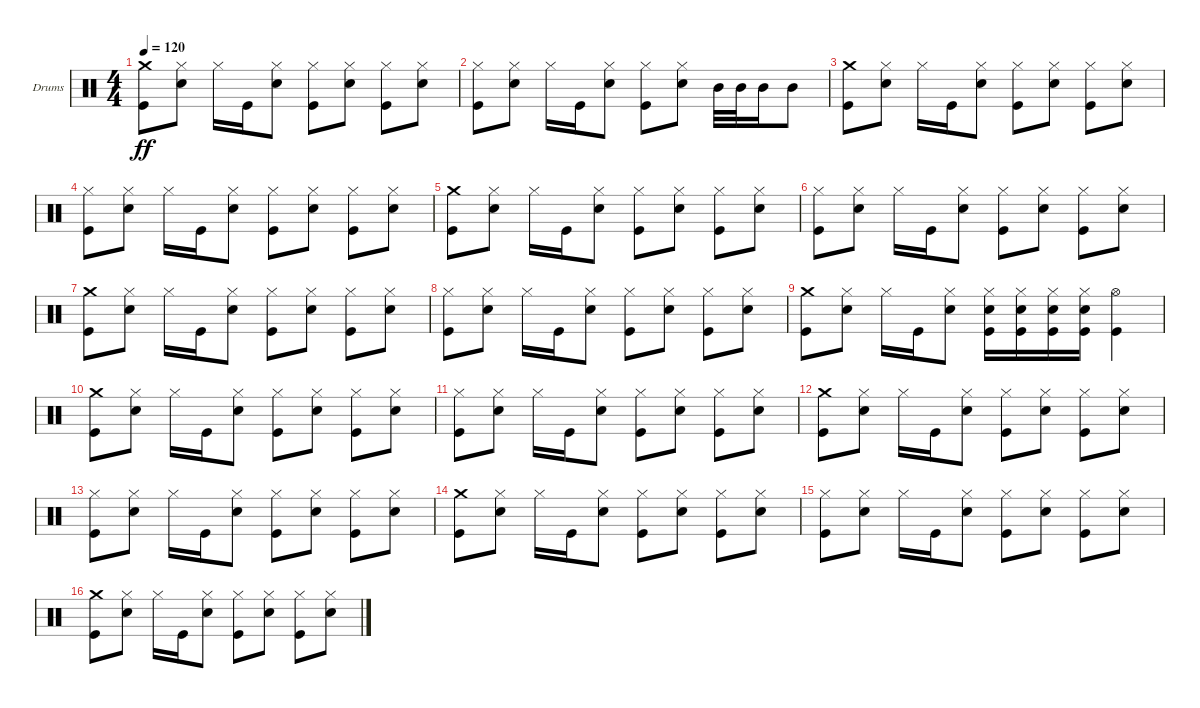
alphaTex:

\bracketExtendMode groupsimilarinstruments
\firstSystemTrackNameOrientation horizontal
\otherSystemsTrackNameOrientation horizontal
\track ("Drumkit" "Drums") {instrument percussion}
\staff {score}
\articulation defaults
\ts (4 4)
\tempo 120
\clef neutral
\ks c
("Kick (hit)" "Crash medium (hit)").8{dy ff} ("Snare (hit) 2" "Hi-Hat (closed)").8 "Hi-Hat (closed)".16 "Kick (hit)".16 ("Snare (hit) 2" "Hi-Hat (closed)").8 ("Kick (hit)" "Hi-Hat (closed)").8 ("Snare (hit) 2" "Hi-Hat (closed)").8 ("Kick (hit)" "Hi-Hat (closed)").8 ("Snare (hit) 2" "Hi-Hat (closed)").8 |
("Kick (hit)" "Hi-Hat (closed)").8 ("Snare (hit) 2" "Hi-Hat (closed)").8 "Hi-Hat (closed)".16 "Kick (hit)".16 ("Snare (hit) 2" "Hi-Hat (closed)").8 ("Kick (hit)" "Hi-Hat (closed)").8 ("Snare (hit) 2" "Hi-Hat (closed)").8 "Mid Tom (hit)".32 "Mid Tom (hit)".32 "Mid Tom (hit)".16 "Mid Tom (hit)".8 |
("Kick (hit)" "Crash medium (hit)").8 ("Snare (hit) 2" "Hi-Hat (closed)").8 "Hi-Hat (closed)".16 "Kick (hit)".16 ("Snare (hit) 2" "Hi-Hat (closed)").8 ("Kick (hit)" "Hi-Hat (closed)").8 ("Snare (hit) 2" "Hi-Hat (closed)").8 ("Kick (hit)" "Hi-Hat (closed)").8 ("Snare (hit) 2" "Hi-Hat (closed)").8 |
("Kick (hit)" "Hi-Hat (closed)").8 ("Snare (hit) 2" "Hi-Hat (closed)").8 "Hi-Hat (closed)".16 "Kick (hit)".16 ("Snare (hit) 2" "Hi-Hat (closed)").8 ("Kick (hit)" "Hi-Hat (closed)").8 ("Snare (hit) 2" "Hi-Hat (closed)").8 ("Kick (hit)" "Hi-Hat (closed)").8 ("Snare (hit) 2" "Hi-Hat (closed)").8 |
("Kick (hit)" "Crash medium (hit)").8 ("Snare (hit) 2" "Hi-Hat (closed)").8 "Hi-Hat (closed)".16 "Kick (hit)".16 ("Snare (hit) 2" "Hi-Hat (closed)").8 ("Kick (hit)" "Hi-Hat (closed)").8 ("Snare (hit) 2" "Hi-Hat (closed)").8 ("Kick (hit)" "Hi-Hat (closed)").8 ("Snare (hit) 2" "Hi-Hat (closed)").8 |
("Kick (hit)" "Hi-Hat (closed)").8 ("Snare (hit) 2" "Hi-Hat (closed)").8 "Hi-Hat (closed)".16 "Kick (hit)".16 ("Snare (hit) 2" "Hi-Hat (closed)").8 ("Kick (hit)" "Hi-Hat (closed)").8 ("Snare (hit) 2" "Hi-Hat (closed)").8 ("Kick (hit)" "Hi-Hat (closed)").8 ("Snare (hit) 2" "Hi-Hat (closed)").8 |
("Kick (hit)" "Crash medium (hit)").8 ("Snare (hit) 2" "Hi-Hat (closed)").8 "Hi-Hat (closed)".16 "Kick (hit)".16 ("Snare (hit) 2" "Hi-Hat (closed)").8 ("Kick (hit)" "Hi-Hat (closed)").8 ("Snare (hit) 2" "Hi-Hat (closed)").8 ("Kick (hit)" "Hi-Hat (closed)").8 ("Snare (hit) 2" "Hi-Hat (closed)").8 |
("Kick (hit)" "Hi-Hat (closed)").8 ("Snare (hit) 2" "Hi-Hat (closed)").8 "Hi-Hat (closed)".16 "Kick (hit)".16 ("Snare (hit) 2" "Hi-Hat (closed)").8 ("Kick (hit)" "Hi-Hat (closed)").8 ("Snare (hit) 2" "Hi-Hat (closed)").8 ("Kick (hit)" "Hi-Hat (closed)").8 ("Snare (hit) 2" "Hi-Hat (closed)").8 |
("Kick (hit)" "Crash medium (hit)").8 ("Snare (hit) 2" "Hi-Hat (closed)").8 "Hi-Hat (closed)".16 "Kick (hit)".16 ("Snare (hit) 2" "Hi-Hat (closed)").8 ("Kick (hit)" "Snare (hit) 2" "Hi-Hat (closed)").16 ("Kick (hit)" "Snare (hit) 2" "Hi-Hat (closed)").16 ("Kick (hit)" "Snare (hit) 2" "Hi-Hat (closed)").16 ("Kick (hit)" "Snare (hit) 2" "Hi-Hat (closed)").16 ("Kick (hit)" "Hi-Hat (open)").4 |
("Kick (hit)" "Crash medium (hit)").8 ("Snare (hit) 2" "Hi-Hat (closed)").8 "Hi-Hat (closed)".16 "Kick (hit)".16 ("Snare (hit) 2" "Hi-Hat (closed)").8 ("Kick (hit)" "Hi-Hat (closed)").8 ("Snare (hit) 2" "Hi-Hat (closed)").8 ("Kick (hit)" "Hi-Hat (closed)").8 ("Snare (hit) 2" "Hi-Hat (closed)").8 |
("Kick (hit)" "Hi-Hat (closed)").8 ("Snare (hit) 2" "Hi-Hat (closed)").8 "Hi-Hat (closed)".16 "Kick (hit)".16 ("Snare (hit) 2" "Hi-Hat (closed)").8 ("Kick (hit)" "Hi-Hat (closed)").8 ("Snare (hit) 2" "Hi-Hat (closed)").8 ("Kick (hit)" "Hi-Hat (closed)").8 ("Snare (hit) 2" "Hi-Hat (closed)").8 |
("Kick (hit)" "Crash medium (hit)").8 ("Snare (hit) 2" "Hi-Hat (closed)").8 "Hi-Hat (closed)".16 "Kick (hit)".16 ("Snare (hit) 2" "Hi-Hat (closed)").8 ("Kick (hit)" "Hi-Hat (closed)").8 ("Snare (hit) 2" "Hi-Hat (closed)").8 ("Kick (hit)" "Hi-Hat (closed)").8 ("Snare (hit) 2" "Hi-Hat (closed)").8 |
("Kick (hit)" "Hi-Hat (closed)").8 ("Snare (hit) 2" "Hi-Hat (closed)").8 "Hi-Hat (closed)".16 "Kick (hit)".16 ("Snare (hit) 2" "Hi-Hat (closed)").8 ("Kick (hit)" "Hi-Hat (closed)").8 ("Snare (hit) 2" "Hi-Hat (closed)").8 ("Kick (hit)" "Hi-Hat (closed)").8 ("Snare (hit) 2" "Hi-Hat (closed)").8 |
("Kick (hit)" "Crash medium (hit)").8 ("Snare (hit) 2" "Hi-Hat (closed)").8 "Hi-Hat (closed)".16 "Kick (hit)".16 ("Snare (hit) 2" "Hi-Hat (closed)").8 ("Kick (hit)" "Hi-Hat (closed)").8 ("Snare (hit) 2" "Hi-Hat (closed)").8 ("Kick (hit)" "Hi-Hat (closed)").8 ("Snare (hit) 2" "Hi-Hat (closed)").8 |
("Kick (hit)" "Hi-Hat (closed)").8 ("Snare (hit) 2" "Hi-Hat (closed)").8 "Hi-Hat (closed)".16 "Kick (hit)".16 ("Snare (hit) 2" "Hi-Hat (closed)").8 ("Kick (hit)" "Hi-Hat (closed)").8 ("Snare (hit) 2" "Hi-Hat (closed)").8 ("Kick (hit)" "Hi-Hat (closed)").8 ("Snare (hit) 2" "Hi-Hat (closed)").8 |
("Kick (hit)" "Crash medium (hit)").8 ("Snare (hit) 2" "Hi-Hat (closed)").8 "Hi-Hat (closed)".16 "Kick (hit)".16 ("Snare (hit) 2" "Hi-Hat (closed)").8 ("Kick (hit)" "Hi-Hat (closed)").8 ("Snare (hit) 2" "Hi-Hat (closed)").8 ("Kick (hit)" "Hi-Hat (closed)").8 ("Snare (hit) 2" "Hi-Hat (closed)").8
